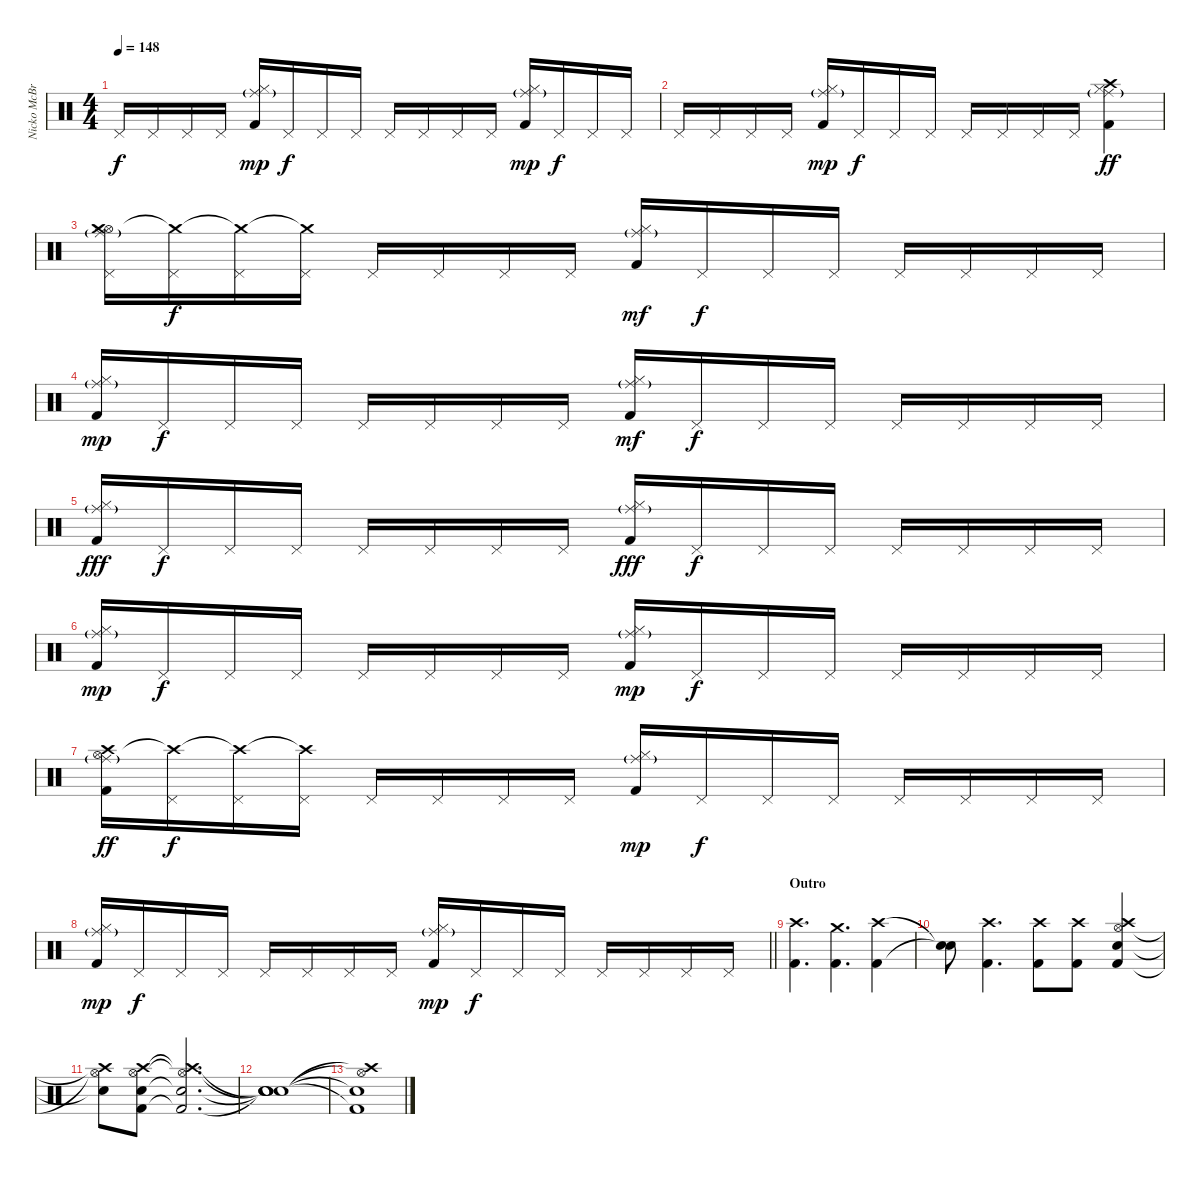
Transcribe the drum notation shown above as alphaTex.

\track ("Nicko McBrain" "Nicko McBr") {instrument percussion}
\staff {score}
\articulation defaults
\ts (4 4)
\tempo 148
\clef neutral
\ks c "Pedal Hi-Hat (hit)".16{dy f} "Pedal Hi-Hat (hit)".16 "Pedal Hi-Hat (hit)".16 "Pedal Hi-Hat (hit)".16
("Kick (hit) 2" "Hi-Hat (closed)" "Ride (middle)"{g}).16{dy mp} "Pedal Hi-Hat (hit)".16{dy f} "Pedal Hi-Hat (hit)".16 "Pedal Hi-Hat (hit)".16 "Pedal Hi-Hat (hit)".16 "Pedal Hi-Hat (hit)".16 "Pedal Hi-Hat (hit)".16 "Pedal Hi-Hat (hit)".16 ("Kick (hit) 2" "Hi-Hat (closed)" "Ride (middle)"{g}).16{dy mp} "Pedal Hi-Hat (hit)".16{dy f} "Pedal Hi-Hat (hit)".16 "Pedal Hi-Hat (hit)".16 |
"Pedal Hi-Hat (hit)".16 "Pedal Hi-Hat (hit)".16 "Pedal Hi-Hat (hit)".16 "Pedal Hi-Hat (hit)".16 ("Kick (hit) 2" "Hi-Hat (closed)" "Ride (middle)"{g}).16{dy mp} "Pedal Hi-Hat (hit)".16{dy f} "Pedal Hi-Hat (hit)".16 "Pedal Hi-Hat (hit)".16 "Pedal Hi-Hat (hit)".16 "Pedal Hi-Hat (hit)".16 "Pedal Hi-Hat (hit)".16 "Pedal Hi-Hat (hit)".16 ("Kick (hit) 2" "Hi-Hat (closed)" "Ride (middle)"{g} "Crash high (hit)").4{dy ff} |
("Pedal Hi-Hat (hit)" "Hi-Hat (open)" "Ride (middle)"{g} "Crash medium (hit)").16 ("Pedal Hi-Hat (hit)" "Crash medium (hit)"{t}).16{dy f} ("Pedal Hi-Hat (hit)" "Crash medium (hit)"{t}).16 ("Pedal Hi-Hat (hit)" "Crash medium (hit)"{t}).16 "Pedal Hi-Hat (hit)".16 "Pedal Hi-Hat (hit)".16 "Pedal Hi-Hat (hit)".16 "Pedal Hi-Hat (hit)".16 ("Kick (hit) 2" "Hi-Hat (closed)" "Ride (middle)"{g}).16{dy mf} "Pedal Hi-Hat (hit)".16{dy f} "Pedal Hi-Hat (hit)".16 "Pedal Hi-Hat (hit)".16 "Pedal Hi-Hat (hit)".16 "Pedal Hi-Hat (hit)".16 "Pedal Hi-Hat (hit)".16 "Pedal Hi-Hat (hit)".16 |
("Kick (hit) 2" "Hi-Hat (closed)" "Ride (middle)"{g}).16{dy mp} "Pedal Hi-Hat (hit)".16{dy f} "Pedal Hi-Hat (hit)".16 "Pedal Hi-Hat (hit)".16 "Pedal Hi-Hat (hit)".16 "Pedal Hi-Hat (hit)".16 "Pedal Hi-Hat (hit)".16 "Pedal Hi-Hat (hit)".16 ("Kick (hit) 2" "Hi-Hat (closed)" "Ride (middle)"{g}).16{dy mf} "Pedal Hi-Hat (hit)".16{dy f} "Pedal Hi-Hat (hit)".16 "Pedal Hi-Hat (hit)".16 "Pedal Hi-Hat (hit)".16 "Pedal Hi-Hat (hit)".16 "Pedal Hi-Hat (hit)".16 "Pedal Hi-Hat (hit)".16 |
("Kick (hit) 2" "Hi-Hat (closed)" "Ride (middle)"{g}).16{dy fff} "Pedal Hi-Hat (hit)".16{dy f} "Pedal Hi-Hat (hit)".16 "Pedal Hi-Hat (hit)".16 "Pedal Hi-Hat (hit)".16 "Pedal Hi-Hat (hit)".16 "Pedal Hi-Hat (hit)".16 "Pedal Hi-Hat (hit)".16 ("Kick (hit) 2" "Hi-Hat (closed)" "Ride (middle)"{g}).16{dy fff} "Pedal Hi-Hat (hit)".16{dy f} "Pedal Hi-Hat (hit)".16 "Pedal Hi-Hat (hit)".16 "Pedal Hi-Hat (hit)".16 "Pedal Hi-Hat (hit)".16 "Pedal Hi-Hat (hit)".16 "Pedal Hi-Hat (hit)".16 |
("Kick (hit) 2" "Hi-Hat (closed)" "Ride (middle)"{g}).16{dy mp} "Pedal Hi-Hat (hit)".16{dy f} "Pedal Hi-Hat (hit)".16 "Pedal Hi-Hat (hit)".16 "Pedal Hi-Hat (hit)".16 "Pedal Hi-Hat (hit)".16 "Pedal Hi-Hat (hit)".16 "Pedal Hi-Hat (hit)".16 ("Kick (hit) 2" "Hi-Hat (closed)" "Ride (middle)"{g}).16{dy mp} "Pedal Hi-Hat (hit)".16{dy f} "Pedal Hi-Hat (hit)".16 "Pedal Hi-Hat (hit)".16 "Pedal Hi-Hat (hit)".16 "Pedal Hi-Hat (hit)".16 "Pedal Hi-Hat (hit)".16 "Pedal Hi-Hat (hit)".16 |
("Kick (hit) 2" "Hi-Hat (open)" "Ride (middle)"{g} "Crash high (hit)").16{dy ff} ("Pedal Hi-Hat (hit)" "Crash high (hit)"{t}).16{dy f} ("Pedal Hi-Hat (hit)" "Crash high (hit)"{t}).16 ("Pedal Hi-Hat (hit)" "Crash high (hit)"{t}).16 "Pedal Hi-Hat (hit)".16 "Pedal Hi-Hat (hit)".16 "Pedal Hi-Hat (hit)".16 "Pedal Hi-Hat (hit)".16 ("Kick (hit) 2" "Hi-Hat (closed)" "Ride (middle)"{g}).16{dy mp} "Pedal Hi-Hat (hit)".16{dy f} "Pedal Hi-Hat (hit)".16 "Pedal Hi-Hat (hit)".16 "Pedal Hi-Hat (hit)".16 "Pedal Hi-Hat (hit)".16 "Pedal Hi-Hat (hit)".16 "Pedal Hi-Hat (hit)".16 |
\barLineRight lightlight
("Kick (hit) 2" "Hi-Hat (closed)" "Ride (middle)"{g}).16{dy mp} "Pedal Hi-Hat (hit)".16{dy f} "Pedal Hi-Hat (hit)".16 "Pedal Hi-Hat (hit)".16 "Pedal Hi-Hat (hit)".16 "Pedal Hi-Hat (hit)".16 "Pedal Hi-Hat (hit)".16 "Pedal Hi-Hat (hit)".16 ("Kick (hit) 2" "Hi-Hat (closed)" "Ride (middle)"{g}).16{dy mp} "Pedal Hi-Hat (hit)".16{dy f} "Pedal Hi-Hat (hit)".16 "Pedal Hi-Hat (hit)".16 "Pedal Hi-Hat (hit)".16 "Pedal Hi-Hat (hit)".16 "Pedal Hi-Hat (hit)".16 "Pedal Hi-Hat (hit)".16 |
\section ("" "Outro")
("Kick (hit) 2" "Crash high (hit)").4{d} ("Kick (hit) 2" "Crash medium (hit)").4{d} ("Kick (hit) 2" "Crash high (hit)").4 |
("Snare (hit)"{t} "Snare (hit)"{t}).8 ("Kick (hit) 2" "Crash high (hit)").4{d} ("Kick (hit) 2" "Crash high (hit)").8 ("Kick (hit) 2" "Crash high (hit)").8 ("Snare (hit) 2" "Kick (hit) 2" "Hi-Hat (open)" "Crash high (hit)").4 |
("Snare (hit) 2"{t} "Hi-Hat (open)"{t} "Crash high (hit)"{t}).8 ("Snare (hit) 2" "Kick (hit) 2" "Hi-Hat (open)" "Crash high (hit)").8 ("Snare (hit) 2"{t} "Kick (hit) 2"{t} "Hi-Hat (open)"{t} "Crash high (hit)"{t}).2{d} |
("Snare (hit)"{t} "Snare (hit)"{t} "Snare (hit)"{t} "Snare (hit)"{t}).1 |
("Snare (hit) 2"{t} "Kick (hit) 2"{t} "Hi-Hat (open)"{t} "Crash high (hit)"{t}).1
